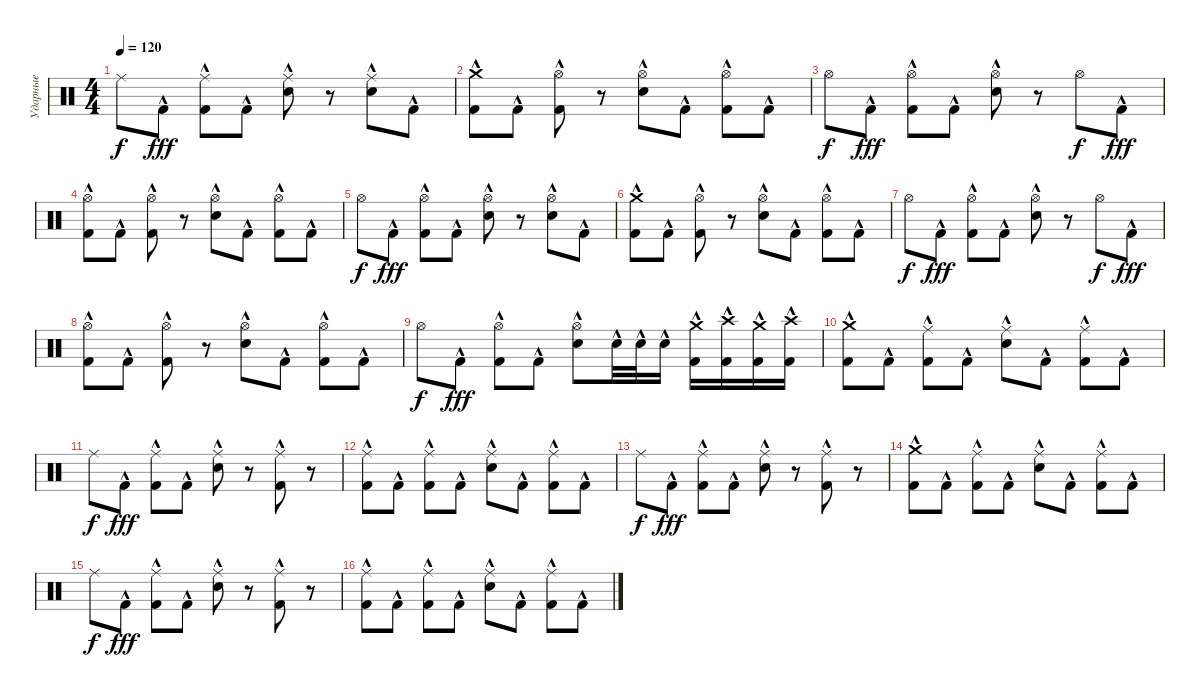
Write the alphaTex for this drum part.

\track ("Ударные" "Ударные") {instrument percussion}
\staff
\articulation defaults
\ts (4 4)
\tempo 120
\clef neutral
\ks c "Ride (middle)".8{dy f} "Kick (hit) 2"{hac}.8{dy fff}
("Ride (middle)" "Kick (hit) 2"{hac}).8 "Kick (hit) 2"{hac}.8 ("Ride (middle)" "Snare (hit) 2"{hac}).8 r.8 ("Ride (middle)" "Snare (hit) 2"{hac}).8 "Kick (hit) 2"{hac}.8 |
("Crash medium (hit)" "Kick (hit) 2"{hac}).8 "Kick (hit) 2"{hac}.8 ("Hi-Hat (open)" "Kick (hit) 2"{hac}).8 r.8 ("Hi-Hat (open)" "Snare (hit) 2"{hac}).8 "Kick (hit) 2"{hac}.8 ("Hi-Hat (open)" "Kick (hit) 2"{hac}).8 "Kick (hit) 2"{hac}.8 |
"Hi-Hat (open)".8{dy f} "Kick (hit) 2"{hac}.8{dy fff} ("Hi-Hat (open)" "Kick (hit) 2"{hac}).8 "Kick (hit) 2"{hac}.8 ("Hi-Hat (open)" "Snare (hit) 2"{hac}).8 r.8 "Hi-Hat (open)".8{dy f} "Kick (hit) 2"{hac}.8{dy fff} |
("Hi-Hat (open)" "Kick (hit) 2"{hac}).8 "Kick (hit) 2"{hac}.8 ("Hi-Hat (open)" "Kick (hit) 2"{hac}).8 r.8 ("Hi-Hat (open)" "Snare (hit) 2"{hac}).8 "Kick (hit) 2"{hac}.8 ("Hi-Hat (open)" "Kick (hit) 2"{hac}).8 "Kick (hit) 2"{hac}.8 |
"Hi-Hat (open)".8{dy f} "Kick (hit) 2"{hac}.8{dy fff} ("Hi-Hat (open)" "Kick (hit) 2"{hac}).8 "Kick (hit) 2"{hac}.8 ("Hi-Hat (open)" "Snare (hit) 2"{hac}).8 r.8 ("Hi-Hat (open)" "Snare (hit) 2"{hac}).8 "Kick (hit) 2"{hac}.8 |
("Crash medium (hit)" "Kick (hit) 2"{hac}).8 "Kick (hit) 2"{hac}.8 ("Hi-Hat (open)" "Kick (hit) 2"{hac}).8 r.8 ("Hi-Hat (open)" "Snare (hit) 2"{hac}).8 "Kick (hit) 2"{hac}.8 ("Hi-Hat (open)" "Kick (hit) 2"{hac}).8 "Kick (hit) 2"{hac}.8 |
"Hi-Hat (open)".8{dy f} "Kick (hit) 2"{hac}.8{dy fff} ("Hi-Hat (open)" "Kick (hit) 2"{hac}).8 "Kick (hit) 2"{hac}.8 ("Hi-Hat (open)" "Snare (hit) 2"{hac}).8 r.8 "Hi-Hat (open)".8{dy f} "Kick (hit) 2"{hac}.8{dy fff} |
("Hi-Hat (open)" "Kick (hit) 2"{hac}).8 "Kick (hit) 2"{hac}.8 ("Hi-Hat (open)" "Kick (hit) 2"{hac}).8 r.8 ("Hi-Hat (open)" "Snare (hit) 2"{hac}).8 "Kick (hit) 2"{hac}.8 ("Hi-Hat (open)" "Kick (hit) 2"{hac}).8 "Kick (hit) 2"{hac}.8 |
"Hi-Hat (open)".8{dy f} "Kick (hit) 2"{hac}.8{dy fff} ("Hi-Hat (open)" "Kick (hit) 2"{hac}).8 "Kick (hit) 2"{hac}.8 ("Hi-Hat (open)" "Snare (hit) 2"{hac}).8 "Snare (hit) 2"{hac}.32 "Snare (hit) 2"{hac}.32 "Snare (hit) 2"{hac}.16 ("Crash medium (hit)" "Kick (hit) 2"{hac}).16 ("Crash high (hit)" "Kick (hit) 2"{hac}).16 ("Crash medium (hit)" "Kick (hit) 2"{hac}).16 ("Crash high (hit)" "Kick (hit) 2"{hac}).16 |
("Crash medium (hit)" "Kick (hit) 2"{hac}).8 "Kick (hit) 2"{hac}.8 ("Ride (middle)" "Kick (hit) 2"{hac}).8 "Kick (hit) 2"{hac}.8 ("Ride (middle)" "Snare (hit) 2"{hac}).8 "Kick (hit) 2"{hac}.8 ("Ride (middle)" "Kick (hit) 2"{hac}).8 "Kick (hit) 2"{hac}.8 |
"Ride (middle)".8{dy f} "Kick (hit) 2"{hac}.8{dy fff} ("Ride (middle)" "Kick (hit) 2"{hac}).8 "Kick (hit) 2"{hac}.8 ("Ride (middle)" "Snare (hit) 2"{hac}).8 r.8 ("Ride (middle)" "Kick (hit) 2"{hac}).8 r.8 |
("Ride (middle)" "Kick (hit) 2"{hac}).8 "Kick (hit) 2"{hac}.8 ("Ride (middle)" "Kick (hit) 2"{hac}).8 "Kick (hit) 2"{hac}.8 ("Ride (middle)" "Snare (hit) 2"{hac}).8 "Kick (hit) 2"{hac}.8 ("Ride (middle)" "Kick (hit) 2"{hac}).8 "Kick (hit) 2"{hac}.8 |
"Ride (middle)".8{dy f} "Kick (hit) 2"{hac}.8{dy fff} ("Ride (middle)" "Kick (hit) 2"{hac}).8 "Kick (hit) 2"{hac}.8 ("Ride (middle)" "Snare (hit) 2"{hac}).8 r.8 ("Ride (middle)" "Kick (hit) 2"{hac}).8 r.8 |
("Crash medium (hit)" "Kick (hit) 2"{hac}).8 "Kick (hit) 2"{hac}.8 ("Ride (middle)" "Kick (hit) 2"{hac}).8 "Kick (hit) 2"{hac}.8 ("Ride (middle)" "Snare (hit) 2"{hac}).8 "Kick (hit) 2"{hac}.8 ("Ride (middle)" "Kick (hit) 2"{hac}).8 "Kick (hit) 2"{hac}.8 |
"Ride (middle)".8{dy f} "Kick (hit) 2"{hac}.8{dy fff} ("Ride (middle)" "Kick (hit) 2"{hac}).8 "Kick (hit) 2"{hac}.8 ("Ride (middle)" "Snare (hit) 2"{hac}).8 r.8 ("Ride (middle)" "Kick (hit) 2"{hac}).8 r.8 |
("Ride (middle)" "Kick (hit) 2"{hac}).8 "Kick (hit) 2"{hac}.8 ("Ride (middle)" "Kick (hit) 2"{hac}).8 "Kick (hit) 2"{hac}.8 ("Ride (middle)" "Snare (hit) 2"{hac}).8 "Kick (hit) 2"{hac}.8 ("Ride (middle)" "Kick (hit) 2"{hac}).8 "Kick (hit) 2"{hac}.8
